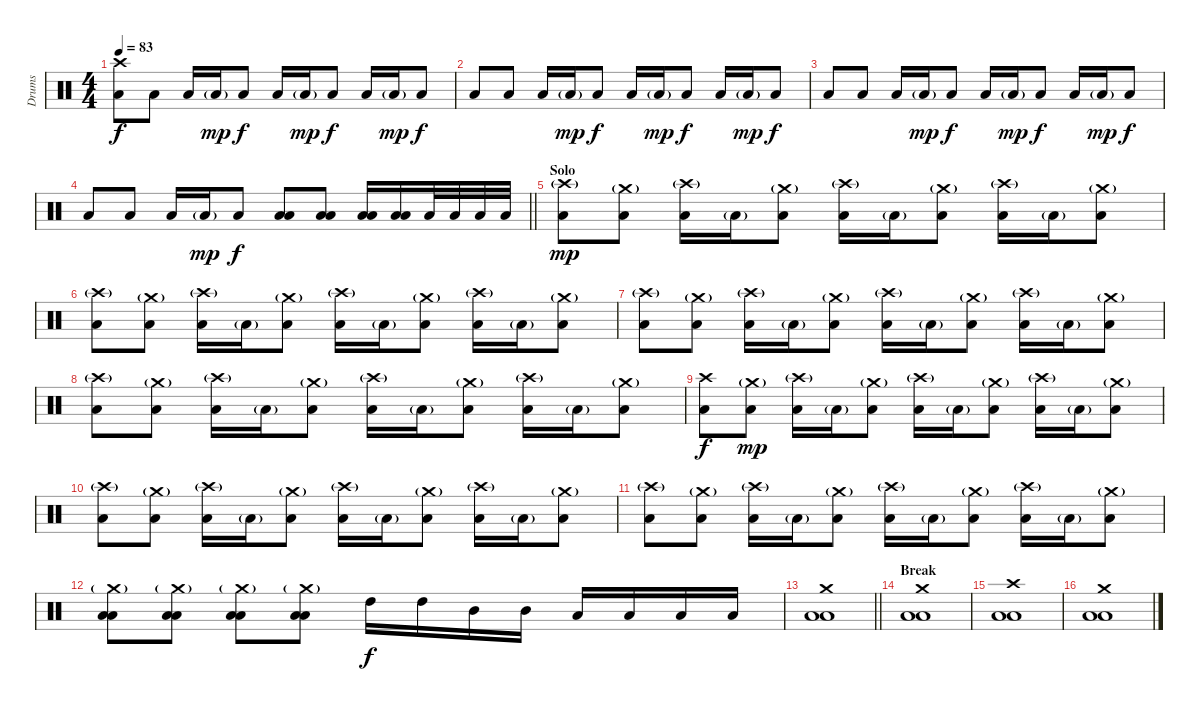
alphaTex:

\track ("Drums" "Drums") {instrument percussion}
\staff {score}
\articulation defaults
\ts (4 4)
\tempo 83
\clef neutral
\ks c
("Crash high (hit)" "Low Floor Tom (hit)").8{dy f} "Low Tom (hit)".8 "Low Floor Tom (hit)".16 "Low Tom (hit)"{g}.16{dy mp} "Low Tom (hit)".8{dy f} "Low Floor Tom (hit)".16 "Low Tom (hit)"{g}.16{dy mp} "Low Tom (hit)".8{dy f} "Low Floor Tom (hit)".16 "Low Tom (hit)"{g}.16{dy mp} "Low Tom (hit)".8{dy f} |
"Low Floor Tom (hit)".8 "Low Tom (hit)".8 "Low Floor Tom (hit)".16 "Low Tom (hit)"{g}.16{dy mp} "Low Tom (hit)".8{dy f} "Low Floor Tom (hit)".16 "Low Tom (hit)"{g}.16{dy mp} "Low Tom (hit)".8{dy f} "Low Floor Tom (hit)".16 "Low Tom (hit)"{g}.16{dy mp} "Low Tom (hit)".8{dy f} |
"Low Floor Tom (hit)".8 "Low Tom (hit)".8 "Low Floor Tom (hit)".16 "Low Tom (hit)"{g}.16{dy mp} "Low Tom (hit)".8{dy f} "Low Floor Tom (hit)".16 "Low Tom (hit)"{g}.16{dy mp} "Low Tom (hit)".8{dy f} "Low Floor Tom (hit)".16 "Low Tom (hit)"{g}.16{dy mp} "Low Tom (hit)".8{dy f} |
\barLineRight lightlight "Low Floor Tom (hit)".8 "Low Tom (hit)".8 "Low Floor Tom (hit)".16 "Low Tom (hit)"{g}.16{dy mp} "Low Tom (hit)".8{dy f}
("Low Tom (hit)" "Low Floor Tom (hit)").8 ("Low Tom (hit)" "Low Floor Tom (hit)").8 ("Low Tom (hit)" "Low Floor Tom (hit)").16 ("Low Tom (hit)" "Low Floor Tom (hit)").16 "Low Tom (hit)".32 "Low Tom (hit)".32 "Low Tom (hit)".32 "Low Tom (hit)".32 |
\section ("" "Solo")
("Crash high (hit)"{g} "Low Floor Tom (hit)").8{dy mp} ("Crash medium (hit)"{g} "Low Tom (hit)").8 ("Crash high (hit)"{g} "Low Floor Tom (hit)").16 "Low Tom (hit)"{g}.16 ("Crash medium (hit)"{g} "Low Tom (hit)").8 ("Crash high (hit)"{g} "Low Floor Tom (hit)").16 "Low Tom (hit)"{g}.16 ("Crash medium (hit)"{g} "Low Tom (hit)").8 ("Crash high (hit)"{g} "Low Floor Tom (hit)").16 "Low Tom (hit)"{g}.16 ("Crash medium (hit)"{g} "Low Tom (hit)").8 |
("Crash high (hit)"{g} "Low Floor Tom (hit)").8 ("Crash medium (hit)"{g} "Low Tom (hit)").8 ("Crash high (hit)"{g} "Low Floor Tom (hit)").16 "Low Tom (hit)"{g}.16 ("Crash medium (hit)"{g} "Low Tom (hit)").8 ("Crash high (hit)"{g} "Low Floor Tom (hit)").16 "Low Tom (hit)"{g}.16 ("Crash medium (hit)"{g} "Low Tom (hit)").8 ("Crash high (hit)"{g} "Low Floor Tom (hit)").16 "Low Tom (hit)"{g}.16 ("Crash medium (hit)"{g} "Low Tom (hit)").8 |
("Crash high (hit)"{g} "Low Floor Tom (hit)").8 ("Crash medium (hit)"{g} "Low Tom (hit)").8 ("Crash high (hit)"{g} "Low Floor Tom (hit)").16 "Low Tom (hit)"{g}.16 ("Crash medium (hit)"{g} "Low Tom (hit)").8 ("Crash high (hit)"{g} "Low Floor Tom (hit)").16 "Low Tom (hit)"{g}.16 ("Crash medium (hit)"{g} "Low Tom (hit)").8 ("Crash high (hit)"{g} "Low Floor Tom (hit)").16 "Low Tom (hit)"{g}.16 ("Crash medium (hit)"{g} "Low Tom (hit)").8 |
("Crash high (hit)"{g} "Low Floor Tom (hit)").8 ("Crash medium (hit)"{g} "Low Tom (hit)").8 ("Crash high (hit)"{g} "Low Floor Tom (hit)").16 "Low Tom (hit)"{g}.16 ("Crash medium (hit)"{g} "Low Tom (hit)").8 ("Crash high (hit)"{g} "Low Floor Tom (hit)").16 "Low Tom (hit)"{g}.16 ("Crash medium (hit)"{g} "Low Tom (hit)").8 ("Crash high (hit)"{g} "Low Floor Tom (hit)").16 "Low Tom (hit)"{g}.16 ("Crash medium (hit)"{g} "Low Tom (hit)").8 |
("Crash high (hit)" "Low Floor Tom (hit)").8{dy f} ("Crash medium (hit)"{g} "Low Tom (hit)").8{dy mp} ("Crash high (hit)"{g} "Low Floor Tom (hit)").16 "Low Tom (hit)"{g}.16 ("Crash medium (hit)"{g} "Low Tom (hit)").8 ("Crash high (hit)"{g} "Low Floor Tom (hit)").16 "Low Tom (hit)"{g}.16 ("Crash medium (hit)"{g} "Low Tom (hit)").8 ("Crash high (hit)"{g} "Low Floor Tom (hit)").16 "Low Tom (hit)"{g}.16 ("Crash medium (hit)"{g} "Low Tom (hit)").8 |
("Crash high (hit)"{g} "Low Floor Tom (hit)").8 ("Crash medium (hit)"{g} "Low Tom (hit)").8 ("Crash high (hit)"{g} "Low Floor Tom (hit)").16 "Low Tom (hit)"{g}.16 ("Crash medium (hit)"{g} "Low Tom (hit)").8 ("Crash high (hit)"{g} "Low Floor Tom (hit)").16 "Low Tom (hit)"{g}.16 ("Crash medium (hit)"{g} "Low Tom (hit)").8 ("Crash high (hit)"{g} "Low Floor Tom (hit)").16 "Low Tom (hit)"{g}.16 ("Crash medium (hit)"{g} "Low Tom (hit)").8 |
("Crash high (hit)"{g} "Low Floor Tom (hit)").8 ("Crash medium (hit)"{g} "Low Tom (hit)").8 ("Crash high (hit)"{g} "Low Floor Tom (hit)").16 "Low Tom (hit)"{g}.16 ("Crash medium (hit)"{g} "Low Tom (hit)").8 ("Crash high (hit)"{g} "Low Floor Tom (hit)").16 "Low Tom (hit)"{g}.16 ("Crash medium (hit)"{g} "Low Tom (hit)").8 ("Crash high (hit)"{g} "Low Floor Tom (hit)").16 "Low Tom (hit)"{g}.16 ("Crash medium (hit)"{g} "Low Tom (hit)").8 |
("Crash medium (hit)"{g} "Low Tom (hit)" "Low Floor Tom (hit)").8 ("Crash medium (hit)"{g} "Low Tom (hit)" "Low Floor Tom (hit)").8 ("Crash medium (hit)"{g} "Low Tom (hit)" "Low Floor Tom (hit)").8 ("Crash medium (hit)"{g} "Low Tom (hit)" "Low Floor Tom (hit)").8 "High Tom (hit)".16{dy f} "High Tom (hit)".16 "Mid Tom (hit)".16 "Mid Tom (hit)".16 "Low Tom (hit)".16 "Low Tom (hit)".16 "Low Tom (hit)".16 "Low Tom (hit)".16 |
\barLineRight lightlight
("Crash medium (hit)" "Low Tom (hit)" "Low Floor Tom (hit)").1 |
\section ("" "Break")
("Crash medium (hit)" "Low Tom (hit)" "Low Floor Tom (hit)").1 |
("Crash high (hit)" "Low Tom (hit)" "Low Floor Tom (hit)").1 |
("Crash medium (hit)" "Low Tom (hit)" "Low Floor Tom (hit)").1
